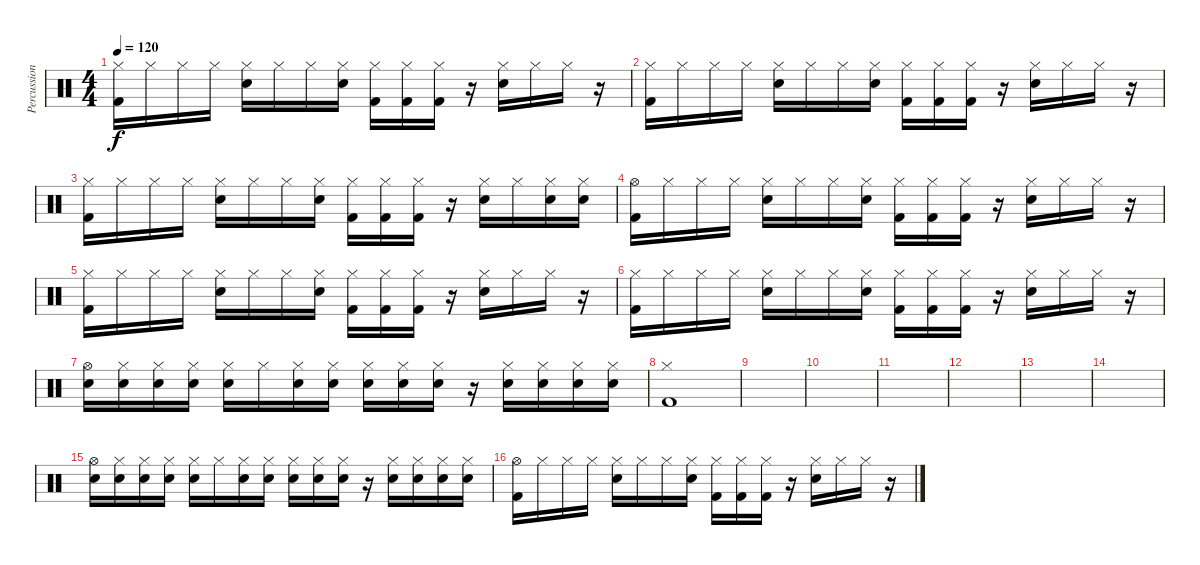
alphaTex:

\track ("Percussion" "Percussion") {instrument percussion}
\staff {score}
\articulation defaults
\ts (4 4)
\tempo 120
\clef neutral
\ks c
("Hi-Hat (closed)" "Kick (hit) 2").16{dy f} "Hi-Hat (closed)".16 "Hi-Hat (closed)".16 "Hi-Hat (closed)".16 ("Hi-Hat (closed)" "Snare (hit) 2").16 "Hi-Hat (closed)".16 "Hi-Hat (closed)".16 ("Hi-Hat (closed)" "Snare (hit) 2").16 ("Hi-Hat (closed)" "Kick (hit) 2").16 ("Hi-Hat (closed)" "Kick (hit) 2").16 ("Hi-Hat (closed)" "Kick (hit) 2").16 r.16 ("Hi-Hat (closed)" "Snare (hit) 2").16 "Hi-Hat (closed)".16 "Hi-Hat (closed)".16 r.16 |
("Hi-Hat (closed)" "Kick (hit) 2").16 "Hi-Hat (closed)".16 "Hi-Hat (closed)".16 "Hi-Hat (closed)".16 ("Hi-Hat (closed)" "Snare (hit) 2").16 "Hi-Hat (closed)".16 "Hi-Hat (closed)".16 ("Hi-Hat (closed)" "Snare (hit) 2").16 ("Hi-Hat (closed)" "Kick (hit) 2").16 ("Hi-Hat (closed)" "Kick (hit) 2").16 ("Hi-Hat (closed)" "Kick (hit) 2").16 r.16 ("Hi-Hat (closed)" "Snare (hit) 2").16 "Hi-Hat (closed)".16 "Hi-Hat (closed)".16 r.16 |
("Hi-Hat (closed)" "Kick (hit) 2").16 "Hi-Hat (closed)".16 "Hi-Hat (closed)".16 "Hi-Hat (closed)".16 ("Hi-Hat (closed)" "Snare (hit) 2").16 "Hi-Hat (closed)".16 "Hi-Hat (closed)".16 ("Hi-Hat (closed)" "Snare (hit) 2").16 ("Hi-Hat (closed)" "Kick (hit) 2").16 ("Hi-Hat (closed)" "Kick (hit) 2").16 ("Hi-Hat (closed)" "Kick (hit) 2").16 r.16 ("Hi-Hat (closed)" "Snare (hit) 2").16 "Hi-Hat (closed)".16 ("Hi-Hat (closed)" "Snare (hit) 2").16 ("Hi-Hat (closed)" "Snare (hit) 2").16 |
("Hi-Hat (open)" "Kick (hit) 2").16 "Hi-Hat (closed)".16 "Hi-Hat (closed)".16 "Hi-Hat (closed)".16 ("Hi-Hat (closed)" "Snare (hit) 2").16 "Hi-Hat (closed)".16 "Hi-Hat (closed)".16 ("Hi-Hat (closed)" "Snare (hit) 2").16 ("Hi-Hat (closed)" "Kick (hit) 2").16 ("Hi-Hat (closed)" "Kick (hit) 2").16 ("Hi-Hat (closed)" "Kick (hit) 2").16 r.16 ("Hi-Hat (closed)" "Snare (hit) 2").16 "Hi-Hat (closed)".16 "Hi-Hat (closed)".16 r.16 |
("Hi-Hat (closed)" "Kick (hit) 2").16 "Hi-Hat (closed)".16 "Hi-Hat (closed)".16 "Hi-Hat (closed)".16 ("Hi-Hat (closed)" "Snare (hit) 2").16 "Hi-Hat (closed)".16 "Hi-Hat (closed)".16 ("Hi-Hat (closed)" "Snare (hit) 2").16 ("Hi-Hat (closed)" "Kick (hit) 2").16 ("Hi-Hat (closed)" "Kick (hit) 2").16 ("Hi-Hat (closed)" "Kick (hit) 2").16 r.16 ("Hi-Hat (closed)" "Snare (hit) 2").16 "Hi-Hat (closed)".16 "Hi-Hat (closed)".16 r.16 |
("Hi-Hat (closed)" "Kick (hit) 2").16 "Hi-Hat (closed)".16 "Hi-Hat (closed)".16 "Hi-Hat (closed)".16 ("Hi-Hat (closed)" "Snare (hit) 2").16 "Hi-Hat (closed)".16 "Hi-Hat (closed)".16 ("Hi-Hat (closed)" "Snare (hit) 2").16 ("Hi-Hat (closed)" "Kick (hit) 2").16 ("Hi-Hat (closed)" "Kick (hit) 2").16 ("Hi-Hat (closed)" "Kick (hit) 2").16 r.16 ("Hi-Hat (closed)" "Snare (hit) 2").16 "Hi-Hat (closed)".16 "Hi-Hat (closed)".16 r.16 |
("Hi-Hat (open)" "Snare (hit) 2").16 ("Hi-Hat (closed)" "Snare (hit) 2").16 ("Hi-Hat (closed)" "Snare (hit) 2").16 ("Hi-Hat (closed)" "Snare (hit) 2").16 ("Hi-Hat (closed)" "Snare (hit) 2").16 "Hi-Hat (closed)".16 ("Hi-Hat (closed)" "Snare (hit) 2").16 ("Hi-Hat (closed)" "Snare (hit) 2").16 ("Hi-Hat (closed)" "Snare (hit) 2").16 ("Hi-Hat (closed)" "Snare (hit) 2").16 ("Hi-Hat (closed)" "Snare (hit) 2").16 r.16 ("Hi-Hat (closed)" "Snare (hit) 2").16 ("Hi-Hat (closed)" "Snare (hit) 2").16 ("Hi-Hat (closed)" "Snare (hit) 2").16 ("Hi-Hat (closed)" "Snare (hit) 2").16 |
("Hi-Hat (closed)" "Kick (hit) 2").1 |
|
|
|
|
|
|
("Hi-Hat (open)" "Snare (hit) 2").16 ("Hi-Hat (closed)" "Snare (hit) 2").16 ("Hi-Hat (closed)" "Snare (hit) 2").16 ("Hi-Hat (closed)" "Snare (hit) 2").16 ("Hi-Hat (closed)" "Snare (hit) 2").16 "Hi-Hat (closed)".16 ("Hi-Hat (closed)" "Snare (hit) 2").16 ("Hi-Hat (closed)" "Snare (hit) 2").16 ("Hi-Hat (closed)" "Snare (hit) 2").16 ("Hi-Hat (closed)" "Snare (hit) 2").16 ("Hi-Hat (closed)" "Snare (hit) 2").16 r.16 ("Hi-Hat (closed)" "Snare (hit) 2").16 ("Hi-Hat (closed)" "Snare (hit) 2").16 ("Hi-Hat (closed)" "Snare (hit) 2").16 ("Hi-Hat (closed)" "Snare (hit) 2").16 |
("Hi-Hat (open)" "Kick (hit) 2").16 "Hi-Hat (closed)".16 "Hi-Hat (closed)".16 "Hi-Hat (closed)".16 ("Hi-Hat (closed)" "Snare (hit) 2").16 "Hi-Hat (closed)".16 "Hi-Hat (closed)".16 ("Hi-Hat (closed)" "Snare (hit) 2").16 ("Hi-Hat (closed)" "Kick (hit) 2").16 ("Hi-Hat (closed)" "Kick (hit) 2").16 ("Hi-Hat (closed)" "Kick (hit) 2").16 r.16 ("Hi-Hat (closed)" "Snare (hit) 2").16 "Hi-Hat (closed)".16 "Hi-Hat (closed)".16 r.16
